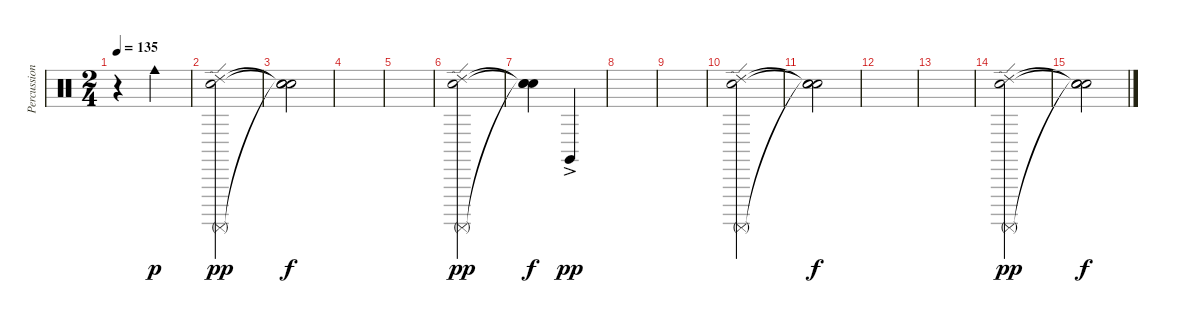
\track ("Percussions" "Percussion") {instrument percussion}
\staff {score}
\articulation defaults
\ts (2 4)
\tempo 135
\clef neutral
\ks c
r.4{dy ppp} "Cowbell medium (hit)".4{dy p} |
("Electric Snare (hit)" "Surdo (mute)" "Ride (edge) 2").2{dy pp} |
("Snare (hit)"{t} "Snare (hit)"{t} "Snare (hit)"{t}).2{dy f} |
|
|
("Electric Snare (hit)" "Surdo (mute)" "Ride (edge) 2").2{dy pp} |
("Snare (hit)"{t} "Snare (hit)"{t} "Snare (hit)"{t}).4{dy f} "Claves (hit)"{ac}.4{dy pp} |
|
|
("Electric Snare (hit)" "Ride (edge) 2" "Surdo (mute)").2 |
("Snare (hit)"{t} "Snare (hit)"{t} "Snare (hit)"{t}).2{dy f} |
|
|
("Electric Snare (hit)" "Ride (edge) 2" "Surdo (mute)").2{dy pp} |
("Snare (hit)"{t} "Snare (hit)"{t} "Snare (hit)"{t}).2{dy f}
